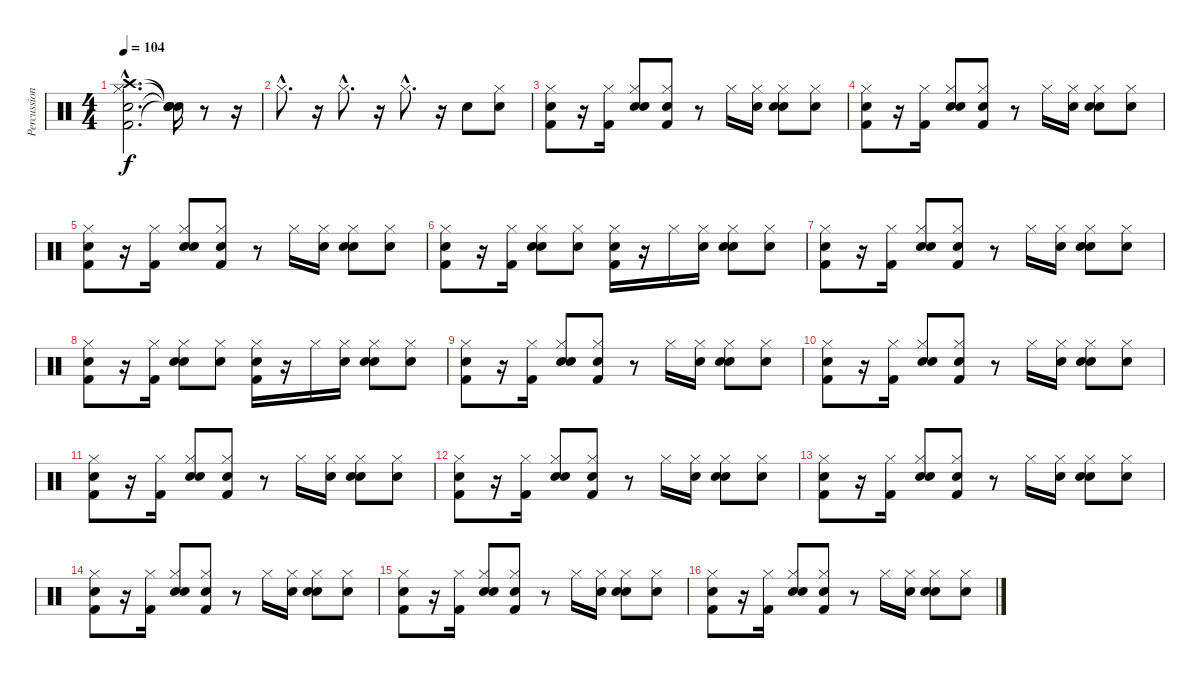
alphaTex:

\track ("Percussion" "Percussion") {instrument percussion}
\staff {score}
\articulation defaults
\ts (4 4)
\tempo 104
\clef neutral
\ks c
("Snare (hit)"{hac} "Hi-Hat (closed)"{hac} "Kick (hit) 2"{hac} "Crash high (hit)"{hac}).2{d dy f} ("Snare (hit)"{t} "Snare (hit)"{t} "Snare (hit)"{t} "Snare (hit)"{t}).16 r.8 r.16 |
"Hi-Hat (closed)"{hac}.8{d} r.16 "Hi-Hat (closed)"{hac}.8{d} r.16 "Hi-Hat (closed)"{hac}.8{d} r.16 "Electric Snare (hit)".8 ("Snare (hit)" "Hi-Hat (closed)").8 |
("Snare (hit)" "Hi-Hat (closed)" "Kick (hit) 2").8 r.16 ("Kick (hit) 2" "Hi-Hat (closed)").16 ("Snare (hit)" "Electric Snare (hit)" "Hi-Hat (closed)").8 ("Snare (hit)" "Kick (hit) 2" "Hi-Hat (closed)").8 r.8 "Hi-Hat (closed)".16 ("Snare (hit)" "Hi-Hat (closed)").16 ("Snare (hit)" "Electric Snare (hit)" "Hi-Hat (closed)").8 ("Snare (hit)" "Hi-Hat (closed)").8 |
("Snare (hit)" "Hi-Hat (closed)" "Kick (hit) 2").8 r.16 ("Kick (hit) 2" "Hi-Hat (closed)").16 ("Snare (hit)" "Electric Snare (hit)" "Hi-Hat (closed)").8 ("Snare (hit)" "Kick (hit) 2" "Hi-Hat (closed)").8 r.8 "Hi-Hat (closed)".16 ("Snare (hit)" "Hi-Hat (closed)").16 ("Snare (hit)" "Electric Snare (hit)" "Hi-Hat (closed)").8 ("Snare (hit)" "Hi-Hat (closed)").8 |
("Snare (hit)" "Kick (hit) 2" "Hi-Hat (closed)").8 r.16 ("Hi-Hat (closed)" "Kick (hit) 2").16 ("Snare (hit)" "Hi-Hat (closed)" "Electric Snare (hit)").8 ("Snare (hit)" "Hi-Hat (closed)" "Kick (hit) 2").8 r.8 "Hi-Hat (closed)".16 ("Snare (hit)" "Hi-Hat (closed)").16 ("Snare (hit)" "Hi-Hat (closed)" "Electric Snare (hit)").8 ("Snare (hit)" "Hi-Hat (closed)").8 |
("Snare (hit)" "Hi-Hat (closed)" "Kick (hit) 2").8 r.16 ("Kick (hit) 2" "Hi-Hat (closed)").16 ("Snare (hit)" "Electric Snare (hit)" "Hi-Hat (closed)").8 ("Snare (hit)" "Hi-Hat (closed)").8 ("Snare (hit)" "Kick (hit) 2" "Hi-Hat (closed)").16 r.16 "Hi-Hat (closed)".16 ("Snare (hit)" "Hi-Hat (closed)").16 ("Snare (hit)" "Electric Snare (hit)" "Hi-Hat (closed)").8 ("Snare (hit)" "Hi-Hat (closed)").8 |
("Snare (hit)" "Kick (hit) 2" "Hi-Hat (closed)").8 r.16 ("Hi-Hat (closed)" "Kick (hit) 2").16 ("Snare (hit)" "Hi-Hat (closed)" "Electric Snare (hit)").8 ("Snare (hit)" "Hi-Hat (closed)" "Kick (hit) 2").8 r.8 "Hi-Hat (closed)".16 ("Snare (hit)" "Hi-Hat (closed)").16 ("Snare (hit)" "Hi-Hat (closed)" "Electric Snare (hit)").8 ("Snare (hit)" "Hi-Hat (closed)").8 |
("Snare (hit)" "Hi-Hat (closed)" "Kick (hit) 2").8 r.16 ("Kick (hit) 2" "Hi-Hat (closed)").16 ("Snare (hit)" "Electric Snare (hit)" "Hi-Hat (closed)").8 ("Snare (hit)" "Hi-Hat (closed)").8 ("Snare (hit)" "Kick (hit) 2" "Hi-Hat (closed)").16 r.16 "Hi-Hat (closed)".16 ("Snare (hit)" "Hi-Hat (closed)").16 ("Snare (hit)" "Electric Snare (hit)" "Hi-Hat (closed)").8 ("Snare (hit)" "Hi-Hat (closed)").8 |
("Snare (hit)" "Hi-Hat (closed)" "Kick (hit) 2").8 r.16 ("Kick (hit) 2" "Hi-Hat (closed)").16 ("Snare (hit)" "Electric Snare (hit)" "Hi-Hat (closed)").8 ("Snare (hit)" "Kick (hit) 2" "Hi-Hat (closed)").8 r.8 "Hi-Hat (closed)".16 ("Snare (hit)" "Hi-Hat (closed)").16 ("Snare (hit)" "Electric Snare (hit)" "Hi-Hat (closed)").8 ("Snare (hit)" "Hi-Hat (closed)").8 |
("Snare (hit)" "Hi-Hat (closed)" "Kick (hit) 2").8 r.16 ("Kick (hit) 2" "Hi-Hat (closed)").16 ("Snare (hit)" "Electric Snare (hit)" "Hi-Hat (closed)").8 ("Snare (hit)" "Kick (hit) 2" "Hi-Hat (closed)").8 r.8 "Hi-Hat (closed)".16 ("Snare (hit)" "Hi-Hat (closed)").16 ("Snare (hit)" "Electric Snare (hit)" "Hi-Hat (closed)").8 ("Snare (hit)" "Hi-Hat (closed)").8 |
("Snare (hit)" "Hi-Hat (closed)" "Kick (hit) 2").8 r.16 ("Kick (hit) 2" "Hi-Hat (closed)").16 ("Snare (hit)" "Electric Snare (hit)" "Hi-Hat (closed)").8 ("Snare (hit)" "Kick (hit) 2" "Hi-Hat (closed)").8 r.8 "Hi-Hat (closed)".16 ("Snare (hit)" "Hi-Hat (closed)").16 ("Snare (hit)" "Electric Snare (hit)" "Hi-Hat (closed)").8 ("Snare (hit)" "Hi-Hat (closed)").8 |
("Snare (hit)" "Hi-Hat (closed)" "Kick (hit) 2").8 r.16 ("Kick (hit) 2" "Hi-Hat (closed)").16 ("Snare (hit)" "Electric Snare (hit)" "Hi-Hat (closed)").8 ("Snare (hit)" "Kick (hit) 2" "Hi-Hat (closed)").8 r.8 "Hi-Hat (closed)".16 ("Snare (hit)" "Hi-Hat (closed)").16 ("Snare (hit)" "Electric Snare (hit)" "Hi-Hat (closed)").8 ("Snare (hit)" "Hi-Hat (closed)").8 |
("Snare (hit)" "Hi-Hat (closed)" "Kick (hit) 2").8 r.16 ("Kick (hit) 2" "Hi-Hat (closed)").16 ("Snare (hit)" "Electric Snare (hit)" "Hi-Hat (closed)").8 ("Snare (hit)" "Kick (hit) 2" "Hi-Hat (closed)").8 r.8 "Hi-Hat (closed)".16 ("Snare (hit)" "Hi-Hat (closed)").16 ("Snare (hit)" "Electric Snare (hit)" "Hi-Hat (closed)").8 ("Snare (hit)" "Hi-Hat (closed)").8 |
("Snare (hit)" "Hi-Hat (closed)" "Kick (hit) 2").8 r.16 ("Kick (hit) 2" "Hi-Hat (closed)").16 ("Snare (hit)" "Electric Snare (hit)" "Hi-Hat (closed)").8 ("Snare (hit)" "Kick (hit) 2" "Hi-Hat (closed)").8 r.8 "Hi-Hat (closed)".16 ("Snare (hit)" "Hi-Hat (closed)").16 ("Snare (hit)" "Electric Snare (hit)" "Hi-Hat (closed)").8 ("Snare (hit)" "Hi-Hat (closed)").8 |
("Snare (hit)" "Hi-Hat (closed)" "Kick (hit) 2").8 r.16 ("Kick (hit) 2" "Hi-Hat (closed)").16 ("Snare (hit)" "Electric Snare (hit)" "Hi-Hat (closed)").8 ("Snare (hit)" "Kick (hit) 2" "Hi-Hat (closed)").8 r.8 "Hi-Hat (closed)".16 ("Snare (hit)" "Hi-Hat (closed)").16 ("Snare (hit)" "Electric Snare (hit)" "Hi-Hat (closed)").8 ("Snare (hit)" "Hi-Hat (closed)").8 |
("Snare (hit)" "Hi-Hat (closed)" "Kick (hit) 2").8 r.16 ("Kick (hit) 2" "Hi-Hat (closed)").16 ("Snare (hit)" "Electric Snare (hit)" "Hi-Hat (closed)").8 ("Snare (hit)" "Kick (hit) 2" "Hi-Hat (closed)").8 r.8 "Hi-Hat (closed)".16 ("Snare (hit)" "Hi-Hat (closed)").16 ("Snare (hit)" "Electric Snare (hit)" "Hi-Hat (closed)").8 ("Snare (hit)" "Hi-Hat (closed)").8
